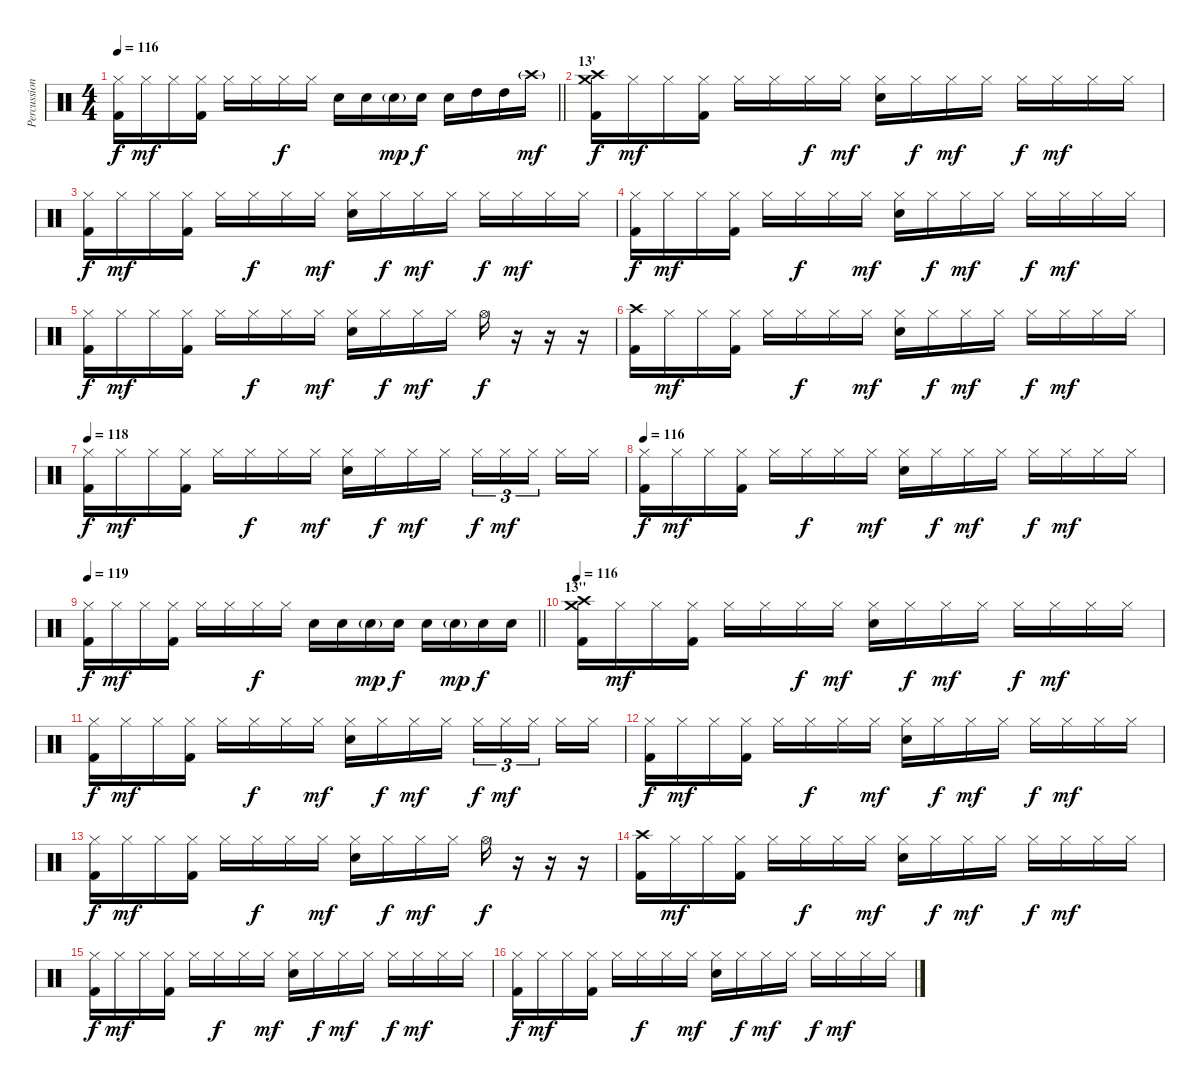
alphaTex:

\track ("Percussion" "Percussion") {instrument percussion}
\staff {score}
\articulation defaults
\ts (4 4)
\tempo 116
\clef neutral
\barLineRight lightlight
\ks c
("Hi-Hat (closed)" "Kick (hit) 2").16{dy f} "Hi-Hat (closed)".16{dy mf} "Hi-Hat (closed)".16 ("Hi-Hat (closed)" "Kick (hit) 2").16 "Hi-Hat (closed)".16 "Hi-Hat (closed)".16 "Hi-Hat (closed)".16{dy f} "Hi-Hat (closed)".16 "Snare (hit) 2".16 "Snare (hit) 2".16 "Snare (hit) 2"{g}.16{dy mp} "Snare (hit) 2".16{dy f} "Snare (hit) 2".16 "High Tom (hit)".16 "High Tom (hit)".16 "Crash high (hit)"{g}.16{dy mf} |
\section ("" "13'")
("Crash high (hit)" "Crash medium (hit)" "Kick (hit) 2").16{dy f} "Hi-Hat (closed)".16{dy mf} "Hi-Hat (closed)".16 ("Hi-Hat (closed)" "Kick (hit) 2").16 "Hi-Hat (closed)".16 "Hi-Hat (closed)".16 "Hi-Hat (closed)".16{dy f} "Hi-Hat (closed)".16{dy mf} ("Hi-Hat (closed)" "Snare (hit) 2").16 "Hi-Hat (closed)".16{dy f} "Hi-Hat (closed)".16{dy mf} "Hi-Hat (closed)".16 "Hi-Hat (closed)".16{dy f} "Hi-Hat (closed)".16{dy mf} "Hi-Hat (closed)".16 "Hi-Hat (closed)".16 |
("Hi-Hat (closed)" "Kick (hit) 2").16{dy f} "Hi-Hat (closed)".16{dy mf} "Hi-Hat (closed)".16 ("Hi-Hat (closed)" "Kick (hit) 2").16 "Hi-Hat (closed)".16 "Hi-Hat (closed)".16{dy f} "Hi-Hat (closed)".16 "Hi-Hat (closed)".16{dy mf} ("Hi-Hat (closed)" "Snare (hit) 2").16 "Hi-Hat (closed)".16{dy f} "Hi-Hat (closed)".16{dy mf} "Hi-Hat (closed)".16 "Hi-Hat (closed)".16{dy f} "Hi-Hat (closed)".16{dy mf} "Hi-Hat (closed)".16 "Hi-Hat (closed)".16 |
("Hi-Hat (closed)" "Kick (hit) 2").16{dy f} "Hi-Hat (closed)".16{dy mf} "Hi-Hat (closed)".16 ("Hi-Hat (closed)" "Kick (hit) 2").16 "Hi-Hat (closed)".16 "Hi-Hat (closed)".16{dy f} "Hi-Hat (closed)".16 "Hi-Hat (closed)".16{dy mf} ("Hi-Hat (closed)" "Snare (hit) 2").16 "Hi-Hat (closed)".16{dy f} "Hi-Hat (closed)".16{dy mf} "Hi-Hat (closed)".16 "Hi-Hat (closed)".16{dy f} "Hi-Hat (closed)".16{dy mf} "Hi-Hat (closed)".16 "Hi-Hat (closed)".16 |
("Hi-Hat (closed)" "Kick (hit) 2").16{dy f} "Hi-Hat (closed)".16{dy mf} "Hi-Hat (closed)".16 ("Hi-Hat (closed)" "Kick (hit) 2").16 "Hi-Hat (closed)".16 "Hi-Hat (closed)".16{dy f} "Hi-Hat (closed)".16 "Hi-Hat (closed)".16{dy mf} ("Hi-Hat (closed)" "Snare (hit) 2").16 "Hi-Hat (closed)".16{dy f} "Hi-Hat (closed)".16{dy mf} "Hi-Hat (closed)".16 "Hi-Hat (open)".16{dy f} r.16 r.16 r.16 |
("Crash high (hit)" "Kick (hit) 2").16 "Hi-Hat (closed)".16{dy mf} "Hi-Hat (closed)".16 ("Hi-Hat (closed)" "Kick (hit) 2").16 "Hi-Hat (closed)".16 "Hi-Hat (closed)".16{dy f} "Hi-Hat (closed)".16 "Hi-Hat (closed)".16{dy mf} ("Hi-Hat (closed)" "Snare (hit) 2").16 "Hi-Hat (closed)".16{dy f} "Hi-Hat (closed)".16{dy mf} "Hi-Hat (closed)".16 "Hi-Hat (closed)".16{dy f} "Hi-Hat (closed)".16{dy mf} "Hi-Hat (closed)".16 "Hi-Hat (closed)".16 |
\tempo 118
("Hi-Hat (closed)" "Kick (hit) 2").16{dy f} "Hi-Hat (closed)".16{dy mf} "Hi-Hat (closed)".16 ("Hi-Hat (closed)" "Kick (hit) 2").16 "Hi-Hat (closed)".16 "Hi-Hat (closed)".16{dy f} "Hi-Hat (closed)".16 "Hi-Hat (closed)".16{dy mf} ("Hi-Hat (closed)" "Snare (hit) 2").16 "Hi-Hat (closed)".16{dy f} "Hi-Hat (closed)".16{dy mf} "Hi-Hat (closed)".16 "Hi-Hat (closed)".16{tu (3 2) dy f} "Hi-Hat (closed)".16{tu (3 2) dy mf} "Hi-Hat (closed)".16{tu (3 2) beam splitsecondary} "Hi-Hat (closed)".16 "Hi-Hat (closed)".16 |
\tempo 116
("Hi-Hat (closed)" "Kick (hit) 2").16{dy f} "Hi-Hat (closed)".16{dy mf} "Hi-Hat (closed)".16 ("Hi-Hat (closed)" "Kick (hit) 2").16 "Hi-Hat (closed)".16 "Hi-Hat (closed)".16{dy f} "Hi-Hat (closed)".16 "Hi-Hat (closed)".16{dy mf} ("Hi-Hat (closed)" "Snare (hit) 2").16 "Hi-Hat (closed)".16{dy f} "Hi-Hat (closed)".16{dy mf} "Hi-Hat (closed)".16 "Hi-Hat (closed)".16{dy f} "Hi-Hat (closed)".16{dy mf} "Hi-Hat (closed)".16 "Hi-Hat (closed)".16 |
\tempo 119
\barLineRight lightlight
("Hi-Hat (closed)" "Kick (hit) 2").16{dy f} "Hi-Hat (closed)".16{dy mf} "Hi-Hat (closed)".16 ("Hi-Hat (closed)" "Kick (hit) 2").16 "Hi-Hat (closed)".16 "Hi-Hat (closed)".16 "Hi-Hat (closed)".16{dy f} "Hi-Hat (closed)".16 "Snare (hit) 2".16 "Snare (hit) 2".16 "Snare (hit) 2"{g}.16{dy mp} "Snare (hit) 2".16{dy f} "Snare (hit) 2".16 "Snare (hit) 2"{g}.16{dy mp} "Snare (hit) 2".16{dy f} "Snare (hit) 2".16 |
\section ("" "13''")
\tempo 116
("Crash high (hit)" "Crash medium (hit)" "Kick (hit) 2").16 "Hi-Hat (closed)".16{dy mf} "Hi-Hat (closed)".16 ("Hi-Hat (closed)" "Kick (hit) 2").16 "Hi-Hat (closed)".16 "Hi-Hat (closed)".16 "Hi-Hat (closed)".16{dy f} "Hi-Hat (closed)".16{dy mf} ("Hi-Hat (closed)" "Snare (hit) 2").16 "Hi-Hat (closed)".16{dy f} "Hi-Hat (closed)".16{dy mf} "Hi-Hat (closed)".16 "Hi-Hat (closed)".16{dy f} "Hi-Hat (closed)".16{dy mf} "Hi-Hat (closed)".16 "Hi-Hat (closed)".16 |
("Hi-Hat (closed)" "Kick (hit) 2").16{dy f} "Hi-Hat (closed)".16{dy mf} "Hi-Hat (closed)".16 ("Hi-Hat (closed)" "Kick (hit) 2").16 "Hi-Hat (closed)".16 "Hi-Hat (closed)".16{dy f} "Hi-Hat (closed)".16 "Hi-Hat (closed)".16{dy mf} ("Hi-Hat (closed)" "Snare (hit) 2").16 "Hi-Hat (closed)".16{dy f} "Hi-Hat (closed)".16{dy mf} "Hi-Hat (closed)".16 "Hi-Hat (closed)".16{tu (3 2) dy f} "Hi-Hat (closed)".16{tu (3 2) dy mf} "Hi-Hat (closed)".16{tu (3 2) beam splitsecondary} "Hi-Hat (closed)".16 "Hi-Hat (closed)".16 |
("Hi-Hat (closed)" "Kick (hit) 2").16{dy f} "Hi-Hat (closed)".16{dy mf} "Hi-Hat (closed)".16 ("Hi-Hat (closed)" "Kick (hit) 2").16 "Hi-Hat (closed)".16 "Hi-Hat (closed)".16{dy f} "Hi-Hat (closed)".16 "Hi-Hat (closed)".16{dy mf} ("Hi-Hat (closed)" "Snare (hit) 2").16 "Hi-Hat (closed)".16{dy f} "Hi-Hat (closed)".16{dy mf} "Hi-Hat (closed)".16 "Hi-Hat (closed)".16{dy f} "Hi-Hat (closed)".16{dy mf} "Hi-Hat (closed)".16 "Hi-Hat (closed)".16 |
("Hi-Hat (closed)" "Kick (hit) 2").16{dy f} "Hi-Hat (closed)".16{dy mf} "Hi-Hat (closed)".16 ("Hi-Hat (closed)" "Kick (hit) 2").16 "Hi-Hat (closed)".16 "Hi-Hat (closed)".16{dy f} "Hi-Hat (closed)".16 "Hi-Hat (closed)".16{dy mf} ("Hi-Hat (closed)" "Snare (hit) 2").16 "Hi-Hat (closed)".16{dy f} "Hi-Hat (closed)".16{dy mf} "Hi-Hat (closed)".16 "Hi-Hat (open)".16{dy f} r.16 r.16 r.16 |
("Crash high (hit)" "Kick (hit) 2").16 "Hi-Hat (closed)".16{dy mf} "Hi-Hat (closed)".16 ("Hi-Hat (closed)" "Kick (hit) 2").16 "Hi-Hat (closed)".16 "Hi-Hat (closed)".16{dy f} "Hi-Hat (closed)".16 "Hi-Hat (closed)".16{dy mf} ("Hi-Hat (closed)" "Snare (hit) 2").16 "Hi-Hat (closed)".16{dy f} "Hi-Hat (closed)".16{dy mf} "Hi-Hat (closed)".16 "Hi-Hat (closed)".16{dy f} "Hi-Hat (closed)".16{dy mf} "Hi-Hat (closed)".16 "Hi-Hat (closed)".16 |
("Hi-Hat (closed)" "Kick (hit) 2").16{dy f} "Hi-Hat (closed)".16{dy mf} "Hi-Hat (closed)".16 ("Hi-Hat (closed)" "Kick (hit) 2").16 "Hi-Hat (closed)".16 "Hi-Hat (closed)".16{dy f} "Hi-Hat (closed)".16 "Hi-Hat (closed)".16{dy mf} ("Hi-Hat (closed)" "Snare (hit) 2").16 "Hi-Hat (closed)".16{dy f} "Hi-Hat (closed)".16{dy mf} "Hi-Hat (closed)".16 "Hi-Hat (closed)".16{dy f} "Hi-Hat (closed)".16{dy mf} "Hi-Hat (closed)".16 "Hi-Hat (closed)".16 |
("Hi-Hat (closed)" "Kick (hit) 2").16{dy f} "Hi-Hat (closed)".16{dy mf} "Hi-Hat (closed)".16 ("Hi-Hat (closed)" "Kick (hit) 2").16 "Hi-Hat (closed)".16 "Hi-Hat (closed)".16{dy f} "Hi-Hat (closed)".16 "Hi-Hat (closed)".16{dy mf} ("Hi-Hat (closed)" "Snare (hit) 2").16 "Hi-Hat (closed)".16{dy f} "Hi-Hat (closed)".16{dy mf} "Hi-Hat (closed)".16 "Hi-Hat (closed)".16{dy f} "Hi-Hat (closed)".16{dy mf} "Hi-Hat (closed)".16 "Hi-Hat (closed)".16
